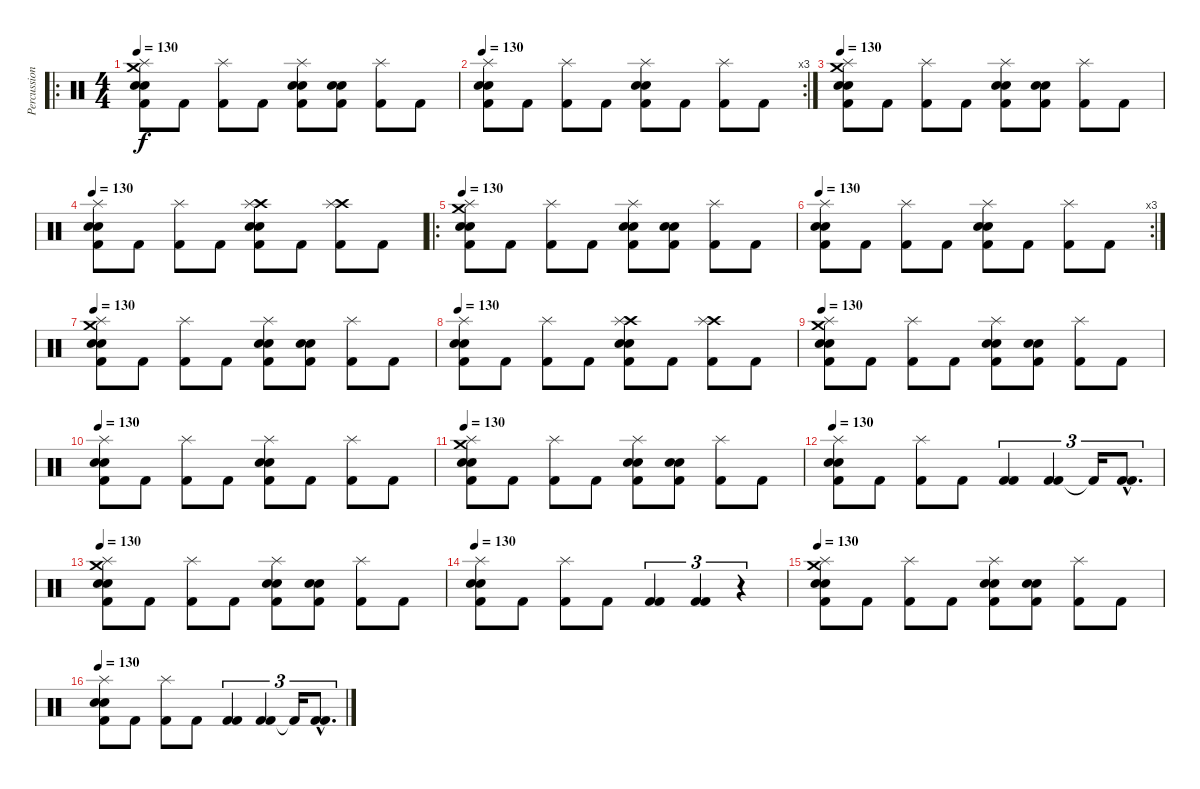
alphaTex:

\track ("Percussions" "Percussion") {instrument percussion}
\staff {score}
\articulation defaults
\ro
\ts (4 4)
\tempo 130
\clef neutral
\ks c
("Kick (hit) 2" "Snare (hit) 2" "Snare (hit) 2" "Crash medium (hit)" "Splash (hit)").8{dy f} "Kick (hit) 2".8 ("Kick (hit) 2" "Splash (hit)").8 "Kick (hit) 2".8 ("Kick (hit) 2" "Snare (hit) 2" "Snare (hit) 2" "Splash (hit)").8 ("Kick (hit) 2" "Snare (hit) 2" "Snare (hit) 2").8 ("Kick (hit) 2" "Splash (hit)").8 "Kick (hit) 2".8 |
\rc 3
\tempo 130
("Kick (hit) 2" "Snare (hit) 2" "Snare (hit) 2" "Splash (hit)").8 "Kick (hit) 2".8 ("Kick (hit) 2" "Splash (hit)").8 "Kick (hit) 2".8 ("Kick (hit) 2" "Snare (hit) 2" "Snare (hit) 2" "Splash (hit)").8 "Kick (hit) 2".8 ("Kick (hit) 2" "Splash (hit)").8 "Kick (hit) 2".8 |
\tempo 130
("Kick (hit) 2" "Snare (hit) 2" "Snare (hit) 2" "Crash medium (hit)" "Splash (hit)").8 "Kick (hit) 2".8 ("Kick (hit) 2" "Splash (hit)").8 "Kick (hit) 2".8 ("Kick (hit) 2" "Snare (hit) 2" "Snare (hit) 2" "Splash (hit)").8 ("Kick (hit) 2" "Snare (hit) 2" "Snare (hit) 2").8 ("Kick (hit) 2" "Splash (hit)").8 "Kick (hit) 2".8 |
\tempo 130
("Kick (hit) 2" "Snare (hit) 2" "Snare (hit) 2" "Splash (hit)").8 "Kick (hit) 2".8 ("Kick (hit) 2" "Splash (hit)").8 "Kick (hit) 2".8 ("Kick (hit) 2" "Snare (hit) 2" "Snare (hit) 2" "Crash high (hit)" "Splash (hit)").8 "Kick (hit) 2".8 ("Kick (hit) 2" "Crash high (hit)" "Splash (hit)").8 "Kick (hit) 2".8 |
\ro
\tempo 130
("Kick (hit) 2" "Snare (hit) 2" "Snare (hit) 2" "Crash medium (hit)" "Splash (hit)").8 "Kick (hit) 2".8 ("Kick (hit) 2" "Splash (hit)").8 "Kick (hit) 2".8 ("Kick (hit) 2" "Snare (hit) 2" "Snare (hit) 2" "Splash (hit)").8 ("Kick (hit) 2" "Snare (hit) 2" "Snare (hit) 2").8 ("Kick (hit) 2" "Splash (hit)").8 "Kick (hit) 2".8 |
\rc 3
\tempo 130
("Kick (hit) 2" "Snare (hit) 2" "Snare (hit) 2" "Splash (hit)").8 "Kick (hit) 2".8 ("Kick (hit) 2" "Splash (hit)").8 "Kick (hit) 2".8 ("Kick (hit) 2" "Snare (hit) 2" "Snare (hit) 2" "Splash (hit)").8 "Kick (hit) 2".8 ("Kick (hit) 2" "Splash (hit)").8 "Kick (hit) 2".8 |
\tempo 130
("Kick (hit) 2" "Snare (hit) 2" "Snare (hit) 2" "Crash medium (hit)" "Splash (hit)").8 "Kick (hit) 2".8 ("Kick (hit) 2" "Splash (hit)").8 "Kick (hit) 2".8 ("Kick (hit) 2" "Snare (hit) 2" "Snare (hit) 2" "Splash (hit)").8 ("Kick (hit) 2" "Snare (hit) 2" "Snare (hit) 2").8 ("Kick (hit) 2" "Splash (hit)").8 "Kick (hit) 2".8 |
\tempo 130
("Kick (hit) 2" "Snare (hit) 2" "Snare (hit) 2" "Splash (hit)").8 "Kick (hit) 2".8 ("Kick (hit) 2" "Splash (hit)").8 "Kick (hit) 2".8 ("Kick (hit) 2" "Snare (hit) 2" "Snare (hit) 2" "Crash high (hit)" "Splash (hit)").8 "Kick (hit) 2".8 ("Kick (hit) 2" "Crash high (hit)" "Splash (hit)").8 "Kick (hit) 2".8 |
\tempo 130
("Kick (hit) 2" "Snare (hit) 2" "Snare (hit) 2" "Crash medium (hit)" "Splash (hit)").8 "Kick (hit) 2".8 ("Kick (hit) 2" "Splash (hit)").8 "Kick (hit) 2".8 ("Kick (hit) 2" "Snare (hit) 2" "Snare (hit) 2" "Splash (hit)").8 ("Kick (hit) 2" "Snare (hit) 2" "Snare (hit) 2").8 ("Kick (hit) 2" "Splash (hit)").8 "Kick (hit) 2".8 |
\tempo 130
("Kick (hit) 2" "Snare (hit) 2" "Snare (hit) 2" "Splash (hit)").8 "Kick (hit) 2".8 ("Kick (hit) 2" "Splash (hit)").8 "Kick (hit) 2".8 ("Kick (hit) 2" "Snare (hit) 2" "Snare (hit) 2" "Splash (hit)").8 "Kick (hit) 2".8 ("Kick (hit) 2" "Splash (hit)").8 "Kick (hit) 2".8 |
\tempo 130
("Kick (hit) 2" "Snare (hit) 2" "Snare (hit) 2" "Crash medium (hit)" "Splash (hit)").8 "Kick (hit) 2".8 ("Kick (hit) 2" "Splash (hit)").8 "Kick (hit) 2".8 ("Kick (hit) 2" "Snare (hit) 2" "Snare (hit) 2" "Splash (hit)").8 ("Kick (hit) 2" "Snare (hit) 2" "Snare (hit) 2").8 ("Kick (hit) 2" "Splash (hit)").8 "Kick (hit) 2".8 |
\tempo 130
("Kick (hit) 2" "Snare (hit) 2" "Snare (hit) 2" "Splash (hit)").8 "Kick (hit) 2".8 ("Kick (hit) 2" "Splash (hit)").8 "Kick (hit) 2".8 ("Kick (hit) 2" "Kick (hit) 2").4{tu (3 2)} ("Kick (hit) 2" "Kick (hit) 2").4{tu (3 2)} "Kick (hit) 2"{t}.16{tu (3 2)} ("Kick (hit) 2"{hac} "Kick (hit) 2"{hac}).8{d tu (3 2)} |
\tempo 130
("Kick (hit) 2" "Snare (hit) 2" "Snare (hit) 2" "Crash medium (hit)" "Splash (hit)").8 "Kick (hit) 2".8 ("Kick (hit) 2" "Splash (hit)").8 "Kick (hit) 2".8 ("Kick (hit) 2" "Snare (hit) 2" "Snare (hit) 2" "Splash (hit)").8 ("Kick (hit) 2" "Snare (hit) 2" "Snare (hit) 2").8 ("Kick (hit) 2" "Splash (hit)").8 "Kick (hit) 2".8 |
\tempo 130
("Kick (hit) 2" "Snare (hit) 2" "Snare (hit) 2" "Splash (hit)").8 "Kick (hit) 2".8 ("Kick (hit) 2" "Splash (hit)").8 "Kick (hit) 2".8 ("Kick (hit) 2" "Kick (hit) 2").4{tu (3 2)} ("Kick (hit) 2" "Kick (hit) 2").4{tu (3 2)} r.4{tu (3 2)} |
\tempo 130
("Kick (hit) 2" "Snare (hit) 2" "Snare (hit) 2" "Crash medium (hit)" "Splash (hit)").8 "Kick (hit) 2".8 ("Kick (hit) 2" "Splash (hit)").8 "Kick (hit) 2".8 ("Kick (hit) 2" "Snare (hit) 2" "Snare (hit) 2" "Splash (hit)").8 ("Kick (hit) 2" "Snare (hit) 2" "Snare (hit) 2").8 ("Kick (hit) 2" "Splash (hit)").8 "Kick (hit) 2".8 |
\tempo 130
("Kick (hit) 2" "Snare (hit) 2" "Snare (hit) 2" "Splash (hit)").8 "Kick (hit) 2".8 ("Kick (hit) 2" "Splash (hit)").8 "Kick (hit) 2".8 ("Kick (hit) 2" "Kick (hit) 2").4{tu (3 2)} ("Kick (hit) 2" "Kick (hit) 2").4{tu (3 2)} "Kick (hit) 2"{t}.16{tu (3 2)} ("Kick (hit) 2"{hac} "Kick (hit) 2"{hac}).8{d tu (3 2)}
